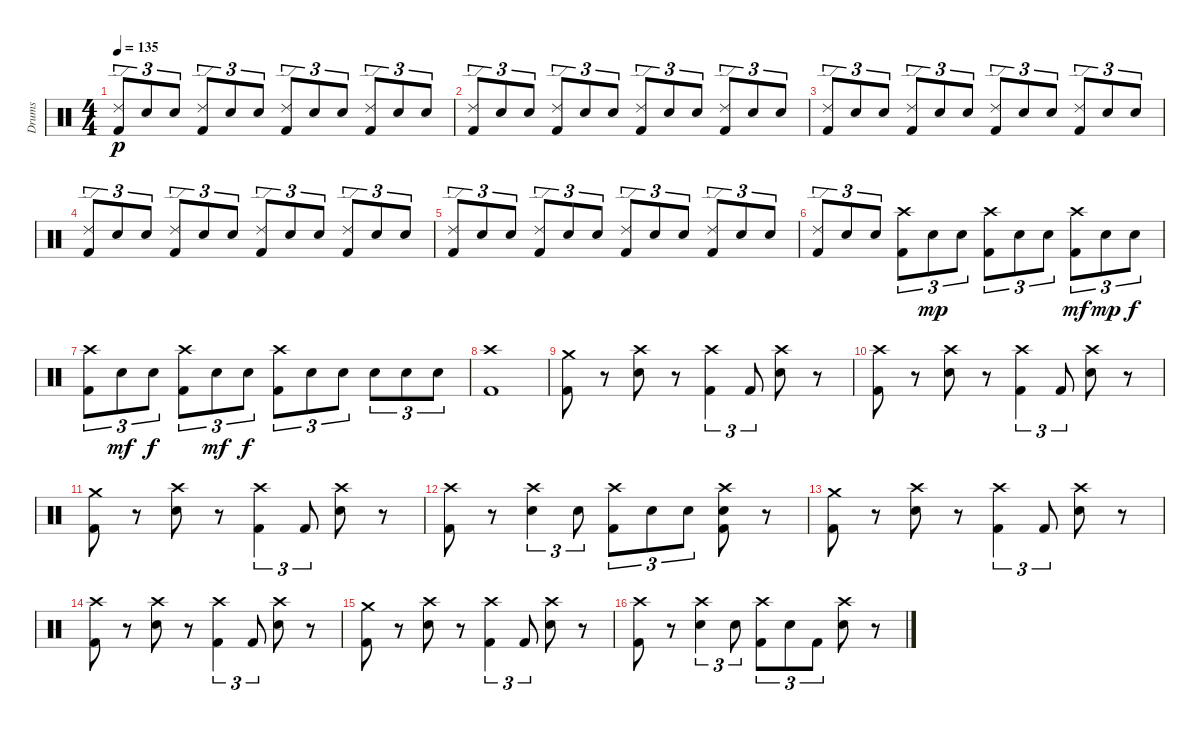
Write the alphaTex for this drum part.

\track ("Drums" "Drums") {instrument percussion}
\staff {score}
\articulation defaults
\ts (4 4)
\tempo 135
\clef neutral
\ks c
("Ride (edge) 2" "Kick (hit) 2").8{tu (3 2) dy p} "Electric Snare (hit)".8{tu (3 2)} "Electric Snare (hit)".8{tu (3 2)} ("Ride (edge) 2" "Kick (hit) 2").8{tu (3 2)} "Electric Snare (hit)".8{tu (3 2)} "Electric Snare (hit)".8{tu (3 2)} ("Ride (edge) 2" "Kick (hit) 2").8{tu (3 2)} "Electric Snare (hit)".8{tu (3 2)} "Electric Snare (hit)".8{tu (3 2)} ("Ride (edge) 2" "Kick (hit) 2").8{tu (3 2)} "Electric Snare (hit)".8{tu (3 2)} "Electric Snare (hit)".8{tu (3 2)} |
("Ride (edge) 2" "Kick (hit) 2").8{tu (3 2)} "Electric Snare (hit)".8{tu (3 2)} "Electric Snare (hit)".8{tu (3 2)} ("Ride (edge) 2" "Kick (hit) 2").8{tu (3 2)} "Electric Snare (hit)".8{tu (3 2)} "Electric Snare (hit)".8{tu (3 2)} ("Ride (edge) 2" "Kick (hit) 2").8{tu (3 2)} "Electric Snare (hit)".8{tu (3 2)} "Electric Snare (hit)".8{tu (3 2)} ("Ride (edge) 2" "Kick (hit) 2").8{tu (3 2)} "Electric Snare (hit)".8{tu (3 2)} "Electric Snare (hit)".8{tu (3 2)} |
("Ride (edge) 2" "Kick (hit) 2").8{tu (3 2)} "Electric Snare (hit)".8{tu (3 2)} "Electric Snare (hit)".8{tu (3 2)} ("Ride (edge) 2" "Kick (hit) 2").8{tu (3 2)} "Electric Snare (hit)".8{tu (3 2)} "Electric Snare (hit)".8{tu (3 2)} ("Ride (edge) 2" "Kick (hit) 2").8{tu (3 2)} "Electric Snare (hit)".8{tu (3 2)} "Electric Snare (hit)".8{tu (3 2)} ("Ride (edge) 2" "Kick (hit) 2").8{tu (3 2)} "Electric Snare (hit)".8{tu (3 2)} "Electric Snare (hit)".8{tu (3 2)} |
("Ride (edge) 2" "Kick (hit) 2").8{tu (3 2)} "Electric Snare (hit)".8{tu (3 2)} "Electric Snare (hit)".8{tu (3 2)} ("Ride (edge) 2" "Kick (hit) 2").8{tu (3 2)} "Electric Snare (hit)".8{tu (3 2)} "Electric Snare (hit)".8{tu (3 2)} ("Ride (edge) 2" "Kick (hit) 2").8{tu (3 2)} "Electric Snare (hit)".8{tu (3 2)} "Electric Snare (hit)".8{tu (3 2)} ("Ride (edge) 2" "Kick (hit) 2").8{tu (3 2)} "Electric Snare (hit)".8{tu (3 2)} "Electric Snare (hit)".8{tu (3 2)} |
("Ride (edge) 2" "Kick (hit) 2").8{tu (3 2)} "Electric Snare (hit)".8{tu (3 2)} "Electric Snare (hit)".8{tu (3 2)} ("Ride (edge) 2" "Kick (hit) 2").8{tu (3 2)} "Electric Snare (hit)".8{tu (3 2)} "Electric Snare (hit)".8{tu (3 2)} ("Ride (edge) 2" "Kick (hit) 2").8{tu (3 2)} "Electric Snare (hit)".8{tu (3 2)} "Electric Snare (hit)".8{tu (3 2)} ("Ride (edge) 2" "Kick (hit) 2").8{tu (3 2)} "Electric Snare (hit)".8{tu (3 2)} "Electric Snare (hit)".8{tu (3 2)} |
("Ride (edge) 2" "Kick (hit) 2").8{tu (3 2)} "Electric Snare (hit)".8{tu (3 2)} "Electric Snare (hit)".8{tu (3 2)} ("Crash high (hit)" "Kick (hit) 2").8{tu (3 2)} "Electric Snare (hit)".8{tu (3 2) dy mp} "Electric Snare (hit)".8{tu (3 2)} ("Crash high (hit)" "Kick (hit) 2").8{tu (3 2)} "Electric Snare (hit)".8{tu (3 2)} "Electric Snare (hit)".8{tu (3 2)} ("Crash high (hit)" "Kick (hit) 2").8{tu (3 2) dy mf} "Electric Snare (hit)".8{tu (3 2) dy mp} "Electric Snare (hit)".8{tu (3 2) dy f} |
("Crash high (hit)" "Kick (hit) 2").8{tu (3 2)} "Electric Snare (hit)".8{tu (3 2) dy mf} "Electric Snare (hit)".8{tu (3 2) dy f} ("Crash high (hit)" "Kick (hit) 2").8{tu (3 2)} "Electric Snare (hit)".8{tu (3 2) dy mf} "Electric Snare (hit)".8{tu (3 2) dy f} ("Crash high (hit)" "Kick (hit) 2").8{tu (3 2)} "Electric Snare (hit)".8{tu (3 2)} "Electric Snare (hit)".8{tu (3 2)} "Electric Snare (hit)".8{tu (3 2)} "Electric Snare (hit)".8{tu (3 2)} "Electric Snare (hit)".8{tu (3 2)} |
("Crash high (hit)" "Kick (hit) 2").1 |
("Crash medium (hit)" "Kick (hit) 2").8 r.8 ("Crash high (hit)" "Electric Snare (hit)").8 r.8 ("Crash high (hit)" "Kick (hit) 2").4{tu (3 2)} "Kick (hit) 2".8{tu (3 2)} ("Crash high (hit)" "Electric Snare (hit)").8 r.8 |
("Crash high (hit)" "Kick (hit) 2").8 r.8 ("Crash high (hit)" "Electric Snare (hit)").8 r.8 ("Crash high (hit)" "Kick (hit) 2").4{tu (3 2)} "Kick (hit) 2".8{tu (3 2)} ("Crash high (hit)" "Electric Snare (hit)").8 r.8 |
("Crash medium (hit)" "Kick (hit) 2").8 r.8 ("Crash high (hit)" "Electric Snare (hit)").8 r.8 ("Crash high (hit)" "Kick (hit) 2").4{tu (3 2)} "Kick (hit) 2".8{tu (3 2)} ("Crash high (hit)" "Electric Snare (hit)").8 r.8 |
("Crash high (hit)" "Kick (hit) 2").8 r.8 ("Crash high (hit)" "Electric Snare (hit)").4{tu (3 2)} "Electric Snare (hit)".8{tu (3 2)} ("Crash high (hit)" "Kick (hit) 2").8{tu (3 2)} "Electric Snare (hit)".8{tu (3 2)} "Electric Snare (hit)".8{tu (3 2)} ("Crash high (hit)" "Electric Snare (hit)" "Kick (hit) 2").8 r.8 |
("Crash medium (hit)" "Kick (hit) 2").8 r.8 ("Crash high (hit)" "Electric Snare (hit)").8 r.8 ("Crash high (hit)" "Kick (hit) 2").4{tu (3 2)} "Kick (hit) 2".8{tu (3 2)} ("Crash high (hit)" "Electric Snare (hit)").8 r.8 |
("Crash high (hit)" "Kick (hit) 2").8 r.8 ("Crash high (hit)" "Electric Snare (hit)").8 r.8 ("Crash high (hit)" "Kick (hit) 2").4{tu (3 2)} "Kick (hit) 2".8{tu (3 2)} ("Crash high (hit)" "Electric Snare (hit)").8 r.8 |
("Crash medium (hit)" "Kick (hit) 2").8 r.8 ("Crash high (hit)" "Electric Snare (hit)").8 r.8 ("Crash high (hit)" "Kick (hit) 2").4{tu (3 2)} "Kick (hit) 2".8{tu (3 2)} ("Crash high (hit)" "Electric Snare (hit)").8 r.8 |
("Crash high (hit)" "Kick (hit) 2").8 r.8 ("Crash high (hit)" "Electric Snare (hit)").4{tu (3 2)} "Electric Snare (hit)".8{tu (3 2)} ("Crash high (hit)" "Kick (hit) 2").8{tu (3 2)} "Electric Snare (hit)".8{tu (3 2)} "Kick (hit) 2".8{tu (3 2)} ("Crash high (hit)" "Electric Snare (hit)").8 r.8
